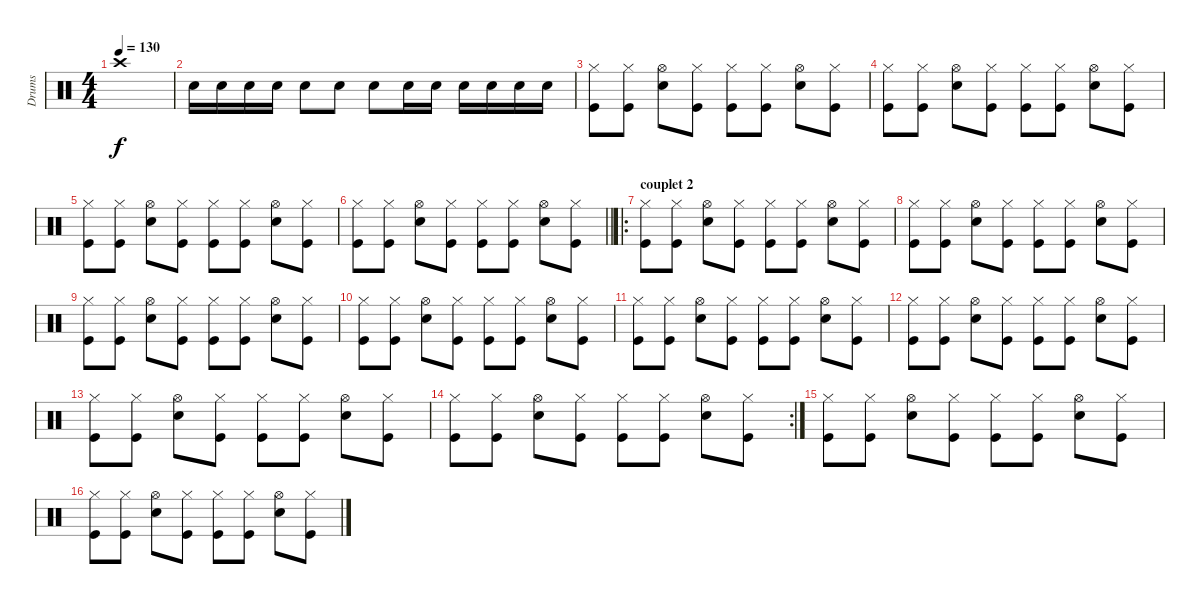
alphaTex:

\track ("Drums" "Drums") {instrument percussion}
\staff {score}
\articulation defaults
\ts (4 4)
\tempo 130
\clef neutral
\ks c "Crash high (hit)".1{dy f}
|
"Snare (hit) 2".16 "Snare (hit) 2".16 "Snare (hit) 2".16 "Snare (hit) 2".16 "Snare (hit) 2".8 "Snare (hit) 2".8 "Snare (hit) 2".8 "Snare (hit) 2".16 "Snare (hit) 2".16 "Snare (hit) 2".16 "Snare (hit) 2".16 "Snare (hit) 2".16 "Snare (hit) 2".16 |
("Hi-Hat (closed)" "Kick (hit)").8 ("Hi-Hat (closed)" "Kick (hit)").8 ("Hi-Hat (open)" "Snare (hit) 2").8 ("Hi-Hat (closed)" "Kick (hit)").8 ("Hi-Hat (closed)" "Kick (hit)").8 ("Hi-Hat (closed)" "Kick (hit)").8 ("Hi-Hat (open)" "Snare (hit) 2").8 ("Hi-Hat (closed)" "Kick (hit)").8 |
("Hi-Hat (closed)" "Kick (hit)").8 ("Hi-Hat (closed)" "Kick (hit)").8 ("Hi-Hat (open)" "Snare (hit) 2").8 ("Hi-Hat (closed)" "Kick (hit)").8 ("Hi-Hat (closed)" "Kick (hit)").8 ("Hi-Hat (closed)" "Kick (hit)").8 ("Hi-Hat (open)" "Snare (hit) 2").8 ("Hi-Hat (closed)" "Kick (hit)").8 |
("Hi-Hat (closed)" "Kick (hit)").8 ("Hi-Hat (closed)" "Kick (hit)").8 ("Hi-Hat (open)" "Snare (hit) 2").8 ("Hi-Hat (closed)" "Kick (hit)").8 ("Hi-Hat (closed)" "Kick (hit)").8 ("Hi-Hat (closed)" "Kick (hit)").8 ("Hi-Hat (open)" "Snare (hit) 2").8 ("Hi-Hat (closed)" "Kick (hit)").8 |
\barLineRight lightlight
("Hi-Hat (closed)" "Kick (hit)").8 ("Hi-Hat (closed)" "Kick (hit)").8 ("Hi-Hat (open)" "Snare (hit) 2").8 ("Hi-Hat (closed)" "Kick (hit)").8 ("Hi-Hat (closed)" "Kick (hit)").8 ("Hi-Hat (closed)" "Kick (hit)").8 ("Hi-Hat (open)" "Snare (hit) 2").8 ("Hi-Hat (closed)" "Kick (hit)").8 |
\ro
\section ("" "couplet 2")
("Hi-Hat (closed)" "Kick (hit)").8 ("Hi-Hat (closed)" "Kick (hit)").8 ("Hi-Hat (open)" "Snare (hit) 2").8 ("Hi-Hat (closed)" "Kick (hit)").8 ("Hi-Hat (closed)" "Kick (hit)").8 ("Hi-Hat (closed)" "Kick (hit)").8 ("Hi-Hat (open)" "Snare (hit) 2").8 ("Hi-Hat (closed)" "Kick (hit)").8 |
("Hi-Hat (closed)" "Kick (hit)").8 ("Hi-Hat (closed)" "Kick (hit)").8 ("Hi-Hat (open)" "Snare (hit) 2").8 ("Hi-Hat (closed)" "Kick (hit)").8 ("Hi-Hat (closed)" "Kick (hit)").8 ("Hi-Hat (closed)" "Kick (hit)").8 ("Hi-Hat (open)" "Snare (hit) 2").8 ("Hi-Hat (closed)" "Kick (hit)").8 |
("Hi-Hat (closed)" "Kick (hit)").8 ("Hi-Hat (closed)" "Kick (hit)").8 ("Hi-Hat (open)" "Snare (hit) 2").8 ("Hi-Hat (closed)" "Kick (hit)").8 ("Hi-Hat (closed)" "Kick (hit)").8 ("Hi-Hat (closed)" "Kick (hit)").8 ("Hi-Hat (open)" "Snare (hit) 2").8 ("Hi-Hat (closed)" "Kick (hit)").8 |
("Hi-Hat (closed)" "Kick (hit)").8 ("Hi-Hat (closed)" "Kick (hit)").8 ("Hi-Hat (open)" "Snare (hit) 2").8 ("Hi-Hat (closed)" "Kick (hit)").8 ("Hi-Hat (closed)" "Kick (hit)").8 ("Hi-Hat (closed)" "Kick (hit)").8 ("Hi-Hat (open)" "Snare (hit) 2").8 ("Hi-Hat (closed)" "Kick (hit)").8 |
("Hi-Hat (closed)" "Kick (hit)").8 ("Hi-Hat (closed)" "Kick (hit)").8 ("Hi-Hat (open)" "Snare (hit) 2").8 ("Hi-Hat (closed)" "Kick (hit)").8 ("Hi-Hat (closed)" "Kick (hit)").8 ("Hi-Hat (closed)" "Kick (hit)").8 ("Hi-Hat (open)" "Snare (hit) 2").8 ("Hi-Hat (closed)" "Kick (hit)").8 |
("Hi-Hat (closed)" "Kick (hit)").8 ("Hi-Hat (closed)" "Kick (hit)").8 ("Hi-Hat (open)" "Snare (hit) 2").8 ("Hi-Hat (closed)" "Kick (hit)").8 ("Hi-Hat (closed)" "Kick (hit)").8 ("Hi-Hat (closed)" "Kick (hit)").8 ("Hi-Hat (open)" "Snare (hit) 2").8 ("Hi-Hat (closed)" "Kick (hit)").8 |
("Hi-Hat (closed)" "Kick (hit)").8 ("Hi-Hat (closed)" "Kick (hit)").8 ("Hi-Hat (open)" "Snare (hit) 2").8 ("Hi-Hat (closed)" "Kick (hit)").8 ("Hi-Hat (closed)" "Kick (hit)").8 ("Hi-Hat (closed)" "Kick (hit)").8 ("Hi-Hat (open)" "Snare (hit) 2").8 ("Hi-Hat (closed)" "Kick (hit)").8 |
\rc 2
("Hi-Hat (closed)" "Kick (hit)").8 ("Hi-Hat (closed)" "Kick (hit)").8 ("Hi-Hat (open)" "Snare (hit) 2").8 ("Hi-Hat (closed)" "Kick (hit)").8 ("Hi-Hat (closed)" "Kick (hit)").8 ("Hi-Hat (closed)" "Kick (hit)").8 ("Hi-Hat (open)" "Snare (hit) 2").8 ("Hi-Hat (closed)" "Kick (hit)").8 |
("Hi-Hat (closed)" "Kick (hit)").8 ("Hi-Hat (closed)" "Kick (hit)").8 ("Hi-Hat (open)" "Snare (hit) 2").8 ("Hi-Hat (closed)" "Kick (hit)").8 ("Hi-Hat (closed)" "Kick (hit)").8 ("Hi-Hat (closed)" "Kick (hit)").8 ("Hi-Hat (open)" "Snare (hit) 2").8 ("Hi-Hat (closed)" "Kick (hit)").8 |
("Hi-Hat (closed)" "Kick (hit)").8 ("Hi-Hat (closed)" "Kick (hit)").8 ("Hi-Hat (open)" "Snare (hit) 2").8 ("Hi-Hat (closed)" "Kick (hit)").8 ("Hi-Hat (closed)" "Kick (hit)").8 ("Hi-Hat (closed)" "Kick (hit)").8 ("Hi-Hat (open)" "Snare (hit) 2").8 ("Hi-Hat (closed)" "Kick (hit)").8
